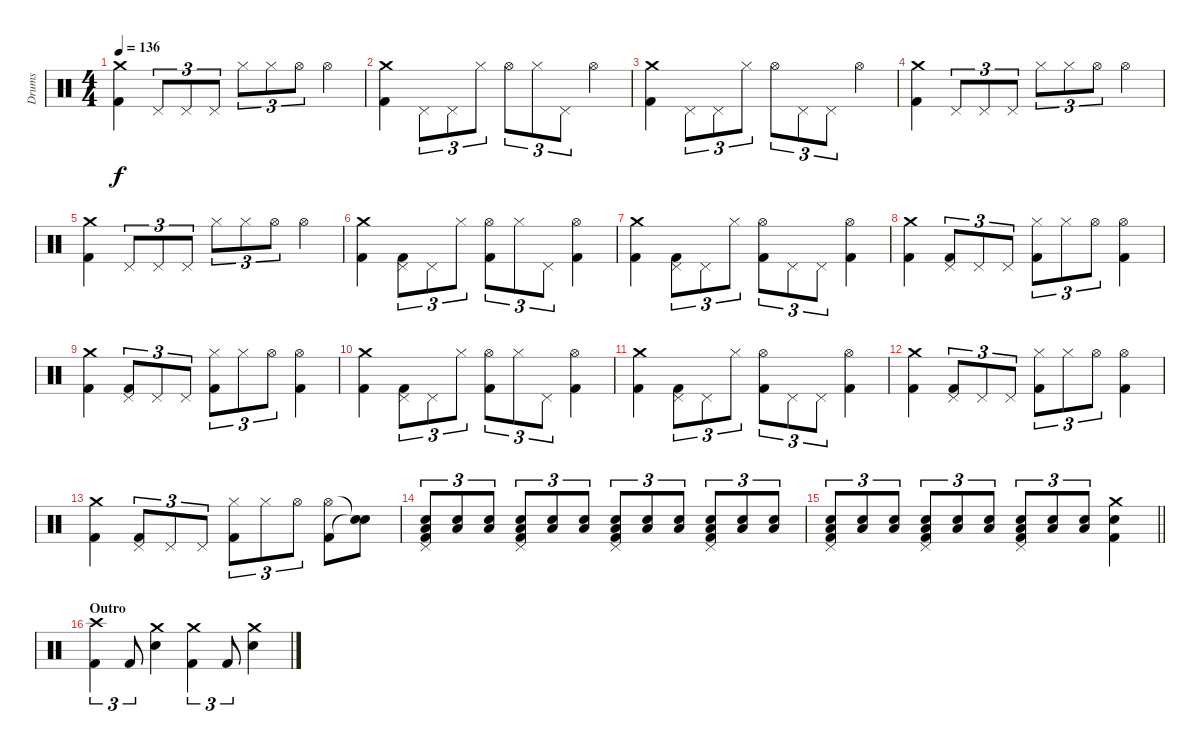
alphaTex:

\track ("Drums" "Drums") {instrument percussion}
\staff {score}
\articulation defaults
\ts (4 4)
\tempo 136
\clef neutral
\ks c
("Crash medium (hit)" "Kick (hit) 2").4{dy f} "Pedal Hi-Hat (hit)".8{tu (3 2)} "Pedal Hi-Hat (hit)".8{tu (3 2)} "Pedal Hi-Hat (hit)".8{tu (3 2)} "Hi-Hat (closed)".8{tu (3 2)} "Hi-Hat (closed)".8{tu (3 2)} "Hi-Hat (open)".8{tu (3 2)} "Hi-Hat (open)".4 |
("Crash medium (hit)" "Kick (hit) 2").4 "Pedal Hi-Hat (hit)".8{tu (3 2)} "Pedal Hi-Hat (hit)".8{tu (3 2)} "Hi-Hat (closed)".8{tu (3 2)} "Hi-Hat (open)".8{tu (3 2)} "Hi-Hat (closed)".8{tu (3 2)} "Pedal Hi-Hat (hit)".8{tu (3 2)} "Hi-Hat (open)".4 |
("Crash medium (hit)" "Kick (hit) 2").4 "Pedal Hi-Hat (hit)".8{tu (3 2)} "Pedal Hi-Hat (hit)".8{tu (3 2)} "Hi-Hat (closed)".8{tu (3 2)} "Hi-Hat (open)".8{tu (3 2)} "Pedal Hi-Hat (hit)".8{tu (3 2)} "Pedal Hi-Hat (hit)".8{tu (3 2)} "Hi-Hat (open)".4 |
("Crash medium (hit)" "Kick (hit) 2").4 "Pedal Hi-Hat (hit)".8{tu (3 2)} "Pedal Hi-Hat (hit)".8{tu (3 2)} "Pedal Hi-Hat (hit)".8{tu (3 2)} "Hi-Hat (closed)".8{tu (3 2)} "Hi-Hat (closed)".8{tu (3 2)} "Hi-Hat (open)".8{tu (3 2)} "Hi-Hat (open)".4 |
("Crash medium (hit)" "Kick (hit) 2").4 "Pedal Hi-Hat (hit)".8{tu (3 2)} "Pedal Hi-Hat (hit)".8{tu (3 2)} "Pedal Hi-Hat (hit)".8{tu (3 2)} "Hi-Hat (closed)".8{tu (3 2)} "Hi-Hat (closed)".8{tu (3 2)} "Hi-Hat (open)".8{tu (3 2)} "Hi-Hat (open)".4 |
("Crash medium (hit)" "Kick (hit) 2").4 ("Pedal Hi-Hat (hit)" "Kick (hit) 2").8{tu (3 2)} "Pedal Hi-Hat (hit)".8{tu (3 2)} "Hi-Hat (closed)".8{tu (3 2)} ("Hi-Hat (open)" "Kick (hit) 2").8{tu (3 2)} "Hi-Hat (closed)".8{tu (3 2)} "Pedal Hi-Hat (hit)".8{tu (3 2)} ("Hi-Hat (open)" "Kick (hit) 2").4 |
("Crash medium (hit)" "Kick (hit) 2").4 ("Pedal Hi-Hat (hit)" "Kick (hit) 2").8{tu (3 2)} "Pedal Hi-Hat (hit)".8{tu (3 2)} "Hi-Hat (closed)".8{tu (3 2)} ("Hi-Hat (open)" "Kick (hit) 2").8{tu (3 2)} "Pedal Hi-Hat (hit)".8{tu (3 2)} "Pedal Hi-Hat (hit)".8{tu (3 2)} ("Hi-Hat (open)" "Kick (hit) 2").4 |
("Crash medium (hit)" "Kick (hit) 2").4 ("Pedal Hi-Hat (hit)" "Kick (hit) 2").8{tu (3 2)} "Pedal Hi-Hat (hit)".8{tu (3 2)} "Pedal Hi-Hat (hit)".8{tu (3 2)} ("Hi-Hat (closed)" "Kick (hit) 2").8{tu (3 2)} "Hi-Hat (closed)".8{tu (3 2)} "Hi-Hat (open)".8{tu (3 2)} ("Hi-Hat (open)" "Kick (hit) 2").4 |
("Crash medium (hit)" "Kick (hit) 2").4 ("Pedal Hi-Hat (hit)" "Kick (hit) 2").8{tu (3 2)} "Pedal Hi-Hat (hit)".8{tu (3 2)} "Pedal Hi-Hat (hit)".8{tu (3 2)} ("Hi-Hat (closed)" "Kick (hit) 2").8{tu (3 2)} "Hi-Hat (closed)".8{tu (3 2)} "Hi-Hat (open)".8{tu (3 2)} ("Hi-Hat (open)" "Kick (hit) 2").4 |
("Crash medium (hit)" "Kick (hit) 2").4 ("Pedal Hi-Hat (hit)" "Kick (hit) 2").8{tu (3 2)} "Pedal Hi-Hat (hit)".8{tu (3 2)} "Hi-Hat (closed)".8{tu (3 2)} ("Hi-Hat (open)" "Kick (hit) 2").8{tu (3 2)} "Hi-Hat (closed)".8{tu (3 2)} "Pedal Hi-Hat (hit)".8{tu (3 2)} ("Hi-Hat (open)" "Kick (hit) 2").4 |
("Crash medium (hit)" "Kick (hit) 2").4 ("Pedal Hi-Hat (hit)" "Kick (hit) 2").8{tu (3 2)} "Pedal Hi-Hat (hit)".8{tu (3 2)} "Hi-Hat (closed)".8{tu (3 2)} ("Hi-Hat (open)" "Kick (hit) 2").8{tu (3 2)} "Pedal Hi-Hat (hit)".8{tu (3 2)} "Pedal Hi-Hat (hit)".8{tu (3 2)} ("Hi-Hat (open)" "Kick (hit) 2").4 |
("Crash medium (hit)" "Kick (hit) 2").4 ("Pedal Hi-Hat (hit)" "Kick (hit) 2").8{tu (3 2)} "Pedal Hi-Hat (hit)".8{tu (3 2)} "Pedal Hi-Hat (hit)".8{tu (3 2)} ("Hi-Hat (closed)" "Kick (hit) 2").8{tu (3 2)} "Hi-Hat (closed)".8{tu (3 2)} "Hi-Hat (open)".8{tu (3 2)} ("Hi-Hat (open)" "Kick (hit) 2").4 |
("Crash medium (hit)" "Kick (hit) 2").4 ("Pedal Hi-Hat (hit)" "Kick (hit) 2").8{tu (3 2)} "Pedal Hi-Hat (hit)".8{tu (3 2)} "Pedal Hi-Hat (hit)".8{tu (3 2)} ("Hi-Hat (closed)" "Kick (hit) 2").8{tu (3 2)} "Hi-Hat (closed)".8{tu (3 2)} "Hi-Hat (open)".8{tu (3 2)} ("Hi-Hat (open)" "Kick (hit) 2").8 ("Snare (hit)"{t} "Snare (hit)"{t}).8{volume 6} |
("Pedal Hi-Hat (hit)" "Low Tom (hit)" "Snare (hit) 2" "Kick (hit) 2").8{tu (3 2) volume 13} ("Low Tom (hit)" "Snare (hit) 2").8{tu (3 2)} ("Low Tom (hit)" "Snare (hit) 2").8{tu (3 2)} ("Pedal Hi-Hat (hit)" "Low Tom (hit)" "Snare (hit) 2" "Kick (hit) 2").8{tu (3 2)} ("Low Tom (hit)" "Snare (hit) 2").8{tu (3 2)} ("Low Tom (hit)" "Snare (hit) 2").8{tu (3 2)} ("Pedal Hi-Hat (hit)" "Low Tom (hit)" "Snare (hit) 2" "Kick (hit) 2").8{tu (3 2)} ("Low Tom (hit)" "Snare (hit) 2").8{tu (3 2)} ("Low Tom (hit)" "Snare (hit) 2").8{tu (3 2)} ("Pedal Hi-Hat (hit)" "Low Tom (hit)" "Snare (hit) 2" "Kick (hit) 2").8{tu (3 2)} ("Low Tom (hit)" "Snare (hit) 2").8{tu (3 2)} ("Low Tom (hit)" "Snare (hit) 2").8{tu (3 2)} |
\barLineRight lightlight
("Pedal Hi-Hat (hit)" "Low Tom (hit)" "Snare (hit) 2" "Kick (hit) 2").8{tu (3 2)} ("Low Tom (hit)" "Snare (hit) 2").8{tu (3 2)} ("Low Tom (hit)" "Snare (hit) 2").8{tu (3 2)} ("Pedal Hi-Hat (hit)" "Low Tom (hit)" "Snare (hit) 2" "Kick (hit) 2").8{tu (3 2)} ("Low Tom (hit)" "Snare (hit) 2").8{tu (3 2)} ("Low Tom (hit)" "Snare (hit) 2").8{tu (3 2)} ("Pedal Hi-Hat (hit)" "Low Tom (hit)" "Snare (hit) 2" "Kick (hit) 2").8{tu (3 2)} ("Low Tom (hit)" "Snare (hit) 2").8{tu (3 2)} ("Low Tom (hit)" "Snare (hit) 2").8{tu (3 2)} ("Crash medium (hit)" "Snare (hit) 2" "Kick (hit) 2").4 |
\section ("" "Outro")
("Crash high (hit)" "Kick (hit) 2").4{tu (3 2)} "Kick (hit) 2".8{tu (3 2)} ("Crash medium (hit)" "Snare (hit) 2").4 ("Crash medium (hit)" "Kick (hit) 2").4{tu (3 2)} "Kick (hit) 2".8{tu (3 2)} ("Crash medium (hit)" "Snare (hit) 2").4
